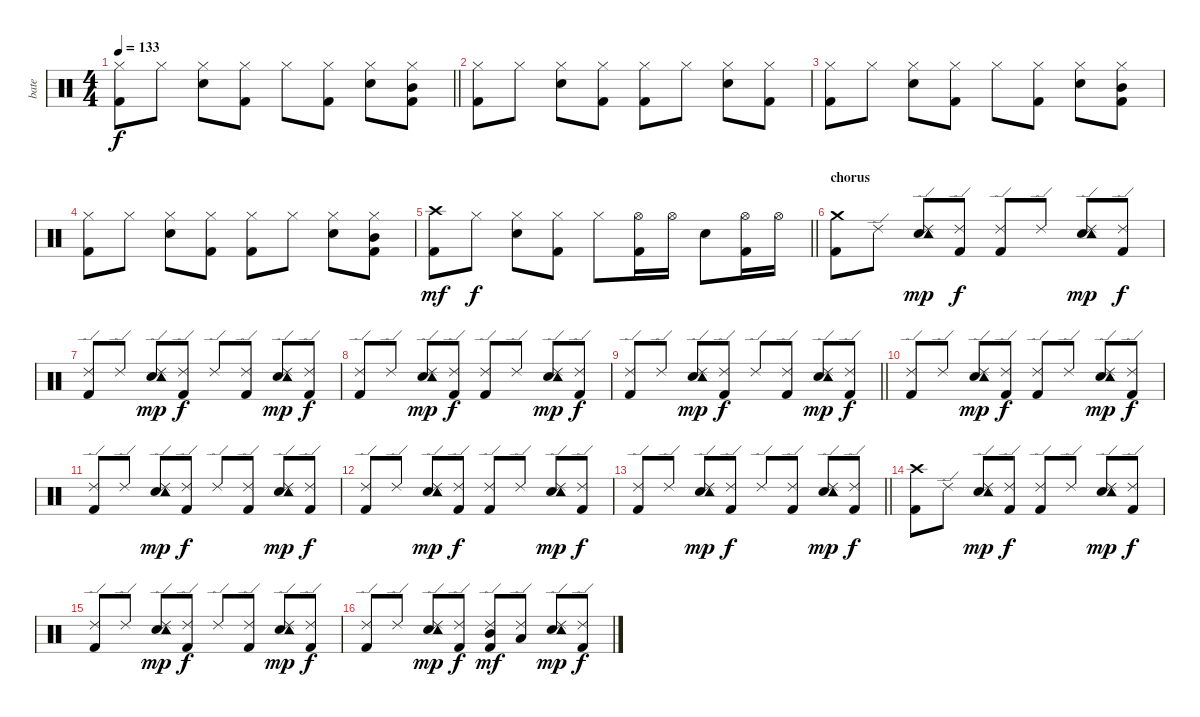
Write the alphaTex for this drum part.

\track ("bate" "bate") {instrument percussion}
\staff {score}
\articulation defaults
\ts (4 4)
\tempo 133
\clef neutral
\barLineRight lightlight
\ks c
("Hi-Hat (closed)" "Kick (hit) 2").8{dy f} "Hi-Hat (closed)".8 ("Hi-Hat (closed)" "Snare (hit) 2").8 ("Hi-Hat (closed)" "Kick (hit) 2").8 "Hi-Hat (closed)".8 ("Hi-Hat (closed)" "Kick (hit) 2").8 ("Hi-Hat (closed)" "Snare (hit) 2").8 ("Hi-Hat (closed)" "Mid Tom (hit)" "Kick (hit) 2").8 |
("Hi-Hat (closed)" "Kick (hit) 2").8 "Hi-Hat (closed)".8 ("Hi-Hat (closed)" "Snare (hit) 2").8 ("Hi-Hat (closed)" "Kick (hit) 2").8 ("Hi-Hat (closed)" "Kick (hit) 2").8 "Hi-Hat (closed)".8 ("Hi-Hat (closed)" "Snare (hit) 2").8 ("Hi-Hat (closed)" "Kick (hit) 2").8 |
("Hi-Hat (closed)" "Kick (hit) 2").8 "Hi-Hat (closed)".8 ("Hi-Hat (closed)" "Snare (hit) 2").8 ("Hi-Hat (closed)" "Kick (hit) 2").8 "Hi-Hat (closed)".8 ("Hi-Hat (closed)" "Kick (hit) 2").8 ("Hi-Hat (closed)" "Snare (hit) 2").8 ("Hi-Hat (closed)" "Mid Tom (hit)" "Kick (hit) 2").8 |
("Hi-Hat (closed)" "Kick (hit) 2").8 "Hi-Hat (closed)".8 ("Hi-Hat (closed)" "Snare (hit) 2").8 ("Hi-Hat (closed)" "Kick (hit) 2").8 ("Hi-Hat (closed)" "Kick (hit) 2").8 "Hi-Hat (closed)".8 ("Hi-Hat (closed)" "Snare (hit) 2").8 ("Hi-Hat (closed)" "Mid Tom (hit)" "Kick (hit) 2").8 |
\barLineRight lightlight
("Crash high (hit)" "Kick (hit) 2").8{dy mf} "Hi-Hat (closed)".8{dy f} ("Hi-Hat (closed)" "Snare (hit) 2").8 ("Hi-Hat (closed)" "Kick (hit) 2").8 "Hi-Hat (closed)".8 ("Hi-Hat (open)" "Kick (hit) 2").16 "Hi-Hat (open)".16 "Snare (hit) 2".8 ("Hi-Hat (open)" "Kick (hit) 2").16 "Hi-Hat (open)".16 |
\section ("" "chorus")
("Crash medium (hit)" "Kick (hit) 2").8 "Ride (edge) 2".8 ("Ride (edge) 2" "Snare (hit) 2" "Tambourine (hit)").8{dy mp} ("Ride (edge) 2" "Kick (hit) 2").8{dy f} ("Ride (edge) 2" "Kick (hit) 2").8 "Ride (edge) 2".8 ("Ride (edge) 2" "Snare (hit) 2" "Tambourine (hit)").8{dy mp} ("Ride (edge) 2" "Kick (hit) 2").8{dy f} |
("Ride (edge) 2" "Kick (hit) 2").8 "Ride (edge) 2".8 ("Ride (edge) 2" "Snare (hit) 2" "Tambourine (hit)").8{dy mp} ("Ride (edge) 2" "Kick (hit) 2").8{dy f} "Ride (edge) 2".8 ("Ride (edge) 2" "Kick (hit) 2").8 ("Ride (edge) 2" "Snare (hit) 2" "Tambourine (hit)").8{dy mp} ("Ride (edge) 2" "Kick (hit) 2").8{dy f} |
("Ride (edge) 2" "Kick (hit) 2").8 "Ride (edge) 2".8 ("Ride (edge) 2" "Snare (hit) 2" "Tambourine (hit)").8{dy mp} ("Ride (edge) 2" "Kick (hit) 2").8{dy f} ("Ride (edge) 2" "Kick (hit) 2").8 "Ride (edge) 2".8 ("Ride (edge) 2" "Snare (hit) 2" "Tambourine (hit)").8{dy mp} ("Ride (edge) 2" "Kick (hit) 2").8{dy f} |
\barLineRight lightlight
("Ride (edge) 2" "Kick (hit) 2").8 "Ride (edge) 2".8 ("Ride (edge) 2" "Snare (hit) 2" "Tambourine (hit)").8{dy mp} ("Ride (edge) 2" "Kick (hit) 2").8{dy f} "Ride (edge) 2".8 ("Ride (edge) 2" "Kick (hit) 2").8 ("Ride (edge) 2" "Snare (hit) 2" "Tambourine (hit)").8{dy mp} ("Ride (edge) 2" "Kick (hit) 2").8{dy f} |
("Ride (edge) 2" "Kick (hit) 2").8 "Ride (edge) 2".8 ("Ride (edge) 2" "Snare (hit) 2" "Tambourine (hit)").8{dy mp} ("Ride (edge) 2" "Kick (hit) 2").8{dy f} ("Ride (edge) 2" "Kick (hit) 2").8 "Ride (edge) 2".8 ("Ride (edge) 2" "Snare (hit) 2" "Tambourine (hit)").8{dy mp} ("Ride (edge) 2" "Kick (hit) 2").8{dy f} |
("Ride (edge) 2" "Kick (hit) 2").8 "Ride (edge) 2".8 ("Ride (edge) 2" "Snare (hit) 2" "Tambourine (hit)").8{dy mp} ("Ride (edge) 2" "Kick (hit) 2").8{dy f} "Ride (edge) 2".8 ("Ride (edge) 2" "Kick (hit) 2").8 ("Ride (edge) 2" "Snare (hit) 2" "Tambourine (hit)").8{dy mp} ("Ride (edge) 2" "Kick (hit) 2").8{dy f} |
("Ride (edge) 2" "Kick (hit) 2").8 "Ride (edge) 2".8 ("Ride (edge) 2" "Snare (hit) 2" "Tambourine (hit)").8{dy mp} ("Ride (edge) 2" "Kick (hit) 2").8{dy f} ("Ride (edge) 2" "Kick (hit) 2").8 "Ride (edge) 2".8 ("Ride (edge) 2" "Snare (hit) 2" "Tambourine (hit)").8{dy mp} ("Ride (edge) 2" "Kick (hit) 2").8{dy f} |
\barLineRight lightlight
("Ride (edge) 2" "Kick (hit) 2").8 "Ride (edge) 2".8 ("Ride (edge) 2" "Snare (hit) 2" "Tambourine (hit)").8{dy mp} ("Ride (edge) 2" "Kick (hit) 2").8{dy f} "Ride (edge) 2".8 ("Ride (edge) 2" "Kick (hit) 2").8 ("Ride (edge) 2" "Snare (hit) 2" "Tambourine (hit)").8{dy mp} ("Ride (edge) 2" "Kick (hit) 2").8{dy f} |
("Crash high (hit)" "Kick (hit) 2").8 "Ride (edge) 2".8 ("Ride (edge) 2" "Snare (hit) 2" "Tambourine (hit)").8{dy mp} ("Ride (edge) 2" "Kick (hit) 2").8{dy f} ("Ride (edge) 2" "Kick (hit) 2").8 "Ride (edge) 2".8 ("Ride (edge) 2" "Snare (hit) 2" "Tambourine (hit)").8{dy mp} ("Ride (edge) 2" "Kick (hit) 2").8{dy f} |
("Ride (edge) 2" "Kick (hit) 2").8 "Ride (edge) 2".8 ("Ride (edge) 2" "Snare (hit) 2" "Tambourine (hit)").8{dy mp} ("Ride (edge) 2" "Kick (hit) 2").8{dy f} "Ride (edge) 2".8 ("Ride (edge) 2" "Kick (hit) 2").8 ("Ride (edge) 2" "Snare (hit) 2" "Tambourine (hit)").8{dy mp} ("Ride (edge) 2" "Kick (hit) 2").8{dy f} |
("Ride (edge) 2" "Kick (hit) 2").8 "Ride (edge) 2".8 ("Ride (edge) 2" "Snare (hit) 2" "Tambourine (hit)").8{dy mp} ("Ride (edge) 2" "Kick (hit) 2").8{dy f} ("Ride (edge) 2" "Mid Tom (hit)" "Kick (hit) 2").8{dy mf} ("Ride (edge) 2" "Low Tom (hit)").8 ("Ride (edge) 2" "Snare (hit) 2" "Tambourine (hit)").8{dy mp} ("Ride (edge) 2" "Kick (hit) 2").8{dy f}
